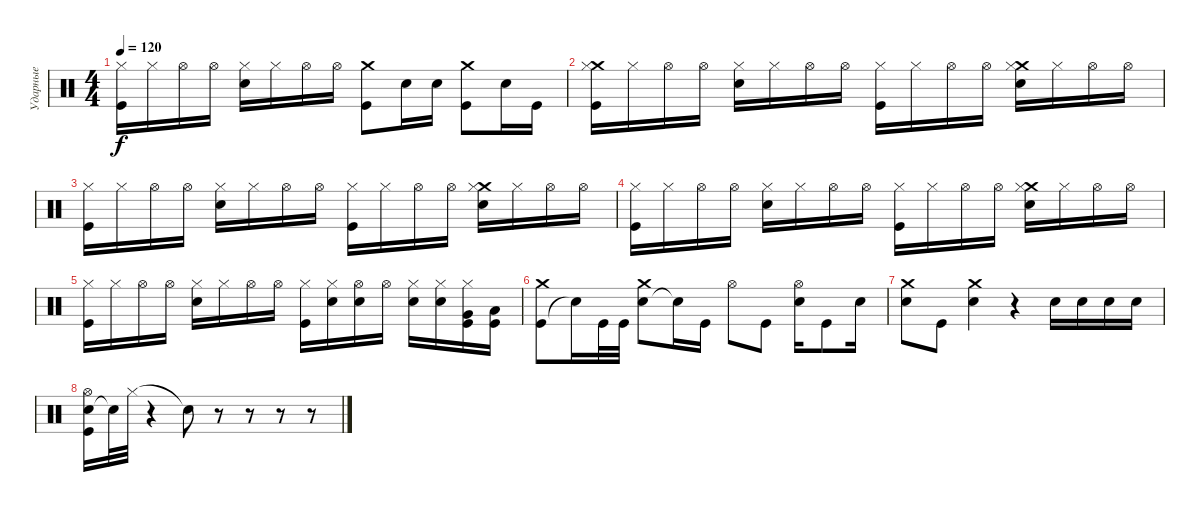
\track ("Ударные" "Ударные") {instrument percussion}
\staff {score}
\articulation defaults
\ts (4 4)
\tempo 120
\clef neutral
\ks c
("Kick (hit)" "Hi-Hat (closed)").16{dy f} "Hi-Hat (closed)".16 "Hi-Hat (open)".16 "Hi-Hat (open)".16 ("Snare (hit) 2" "Hi-Hat (closed)").16 "Hi-Hat (closed)".16 "Hi-Hat (open)".16 "Hi-Hat (open)".16 ("Kick (hit)" "Crash medium (hit)").8 "Snare (hit) 2".16 "Snare (hit) 2".16 ("Kick (hit)" "Crash medium (hit)").8 "Snare (hit) 2".16 "Kick (hit)".16 |
("Crash medium (hit)" "Kick (hit)" "Hi-Hat (closed)").16 "Hi-Hat (closed)".16 "Hi-Hat (open)".16 "Hi-Hat (open)".16 ("Snare (hit) 2" "Hi-Hat (closed)").16 "Hi-Hat (closed)".16 "Hi-Hat (open)".16 "Hi-Hat (open)".16 ("Kick (hit)" "Hi-Hat (closed)").16 "Hi-Hat (closed)".16 "Hi-Hat (open)".16 "Hi-Hat (open)".16 ("Crash medium (hit)" "Snare (hit) 2" "Hi-Hat (closed)").16 "Hi-Hat (closed)".16 "Hi-Hat (open)".16 "Hi-Hat (open)".16 |
("Kick (hit)" "Hi-Hat (closed)").16 "Hi-Hat (closed)".16 "Hi-Hat (open)".16 "Hi-Hat (open)".16 ("Snare (hit) 2" "Hi-Hat (closed)").16 "Hi-Hat (closed)".16 "Hi-Hat (open)".16 "Hi-Hat (open)".16 ("Kick (hit)" "Hi-Hat (closed)").16 "Hi-Hat (closed)".16 "Hi-Hat (open)".16 "Hi-Hat (open)".16 ("Crash medium (hit)" "Snare (hit) 2" "Hi-Hat (closed)").16 "Hi-Hat (closed)".16 "Hi-Hat (open)".16 "Hi-Hat (open)".16 |
("Kick (hit)" "Hi-Hat (closed)").16 "Hi-Hat (closed)".16 "Hi-Hat (open)".16 "Hi-Hat (open)".16 ("Snare (hit) 2" "Hi-Hat (closed)").16 "Hi-Hat (closed)".16 "Hi-Hat (open)".16 "Hi-Hat (open)".16 ("Kick (hit)" "Hi-Hat (closed)").16 "Hi-Hat (closed)".16 "Hi-Hat (open)".16 "Hi-Hat (open)".16 ("Crash medium (hit)" "Snare (hit) 2" "Hi-Hat (closed)").16 "Hi-Hat (closed)".16 "Hi-Hat (open)".16 "Hi-Hat (open)".16 |
("Kick (hit)" "Hi-Hat (closed)").16 "Hi-Hat (closed)".16 "Hi-Hat (open)".16 "Hi-Hat (open)".16 ("Snare (hit) 2" "Hi-Hat (closed)").16 "Hi-Hat (closed)".16 "Hi-Hat (open)".16 "Hi-Hat (open)".16 ("Kick (hit)" "Hi-Hat (closed)").16 ("Snare (hit) 2" "Hi-Hat (closed)").16 ("Snare (hit) 2" "Hi-Hat (open)").16 "Hi-Hat (open)".16 ("Snare (hit) 2" "Hi-Hat (closed)").16 ("Snare (hit) 2" "Hi-Hat (closed)").16 ("Hi-Hat (closed)" "Very Low Tom (hit)" "Kick (hit)").16 ("Low Floor Tom (hit)" "Kick (hit)").16 |
("Kick (hit)" "Crash medium (hit)").8 "Snare (hit)"{t}.16 "Kick (hit)".32 "Kick (hit)".32 ("Snare (hit) 2" "Crash medium (hit)").8 "Snare (hit)"{t}.16 "Kick (hit)".16 "Hi-Hat (open)".8 "Kick (hit)".8 ("Snare (hit) 2" "Hi-Hat (open)").16 "Kick (hit)".8 "Snare (hit) 2".16 |
("Snare (hit) 2" "Crash medium (hit)").8 "Kick (hit)".8 ("Snare (hit) 2" "Crash medium (hit)").4 r.4 "Snare (hit) 2".16 "Snare (hit) 2".16 "Snare (hit) 2".16 "Snare (hit) 2".16 |
("Snare (hit) 2" "Hi-Hat (open)" "Kick (hit)").16 "Snare (hit)"{t}.32 "Hi-Hat (closed)".32 r.4 "Snare (hit)"{t}.8 r.8 r.8 r.8 r.8
